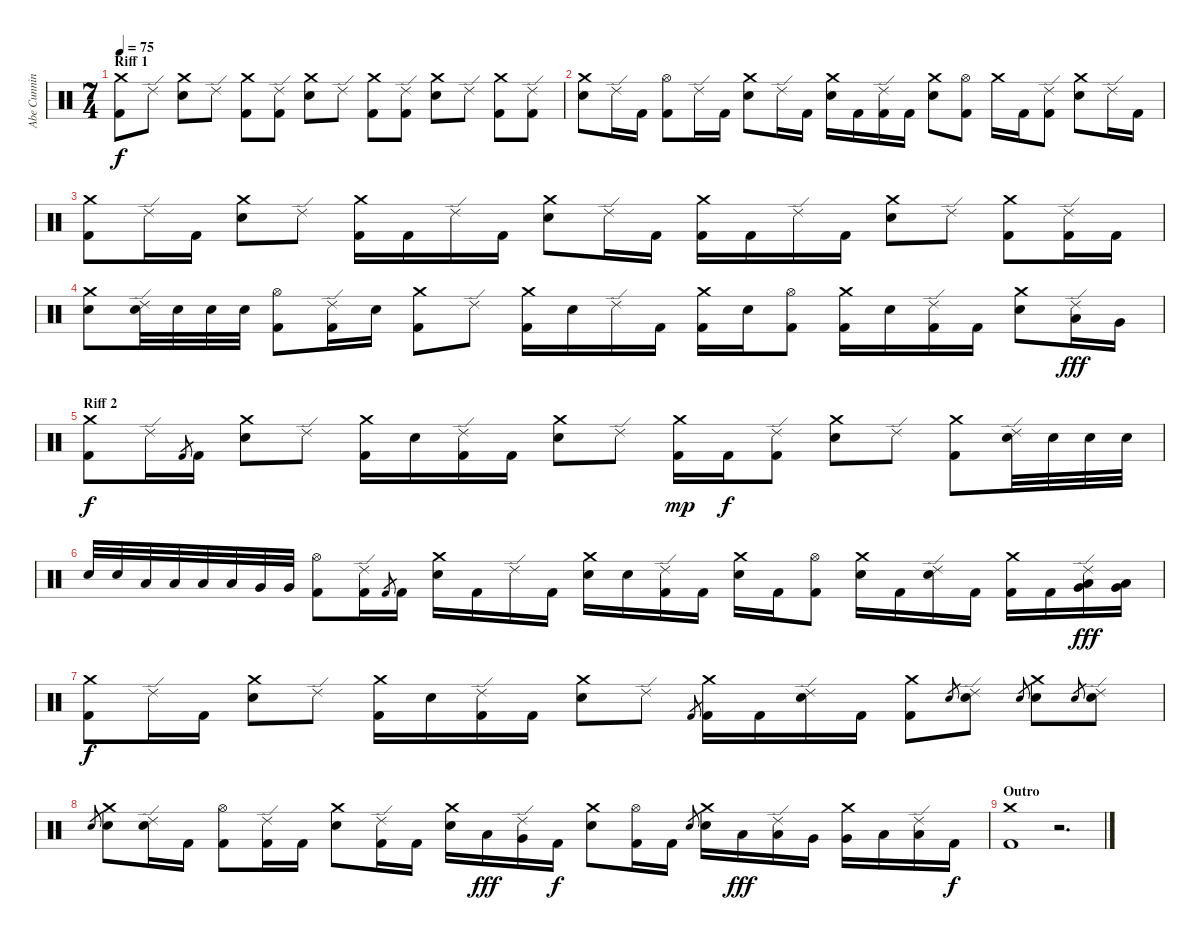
\track ("Abe Cunningham" "Abe Cunnin") {instrument percussion}
\staff {score}
\articulation defaults
\ts (7 4)
\section ("" "Riff 1")
\tempo 75
\clef neutral
\ks c
("Crash medium (hit)" "Kick (hit) 2").8{dy f} "Ride (edge) 2".8 ("Crash medium (hit)" "Electric Snare (hit)").8 "Ride (edge) 2".8 ("Crash medium (hit)" "Kick (hit) 2").8 ("Ride (edge) 2" "Kick (hit) 2").8 ("Crash medium (hit)" "Electric Snare (hit)").8 "Ride (edge) 2".8 ("Crash medium (hit)" "Kick (hit) 2").8 ("Ride (edge) 2" "Kick (hit) 2").8 ("Crash medium (hit)" "Electric Snare (hit)").8 "Ride (edge) 2".8 ("Crash medium (hit)" "Kick (hit) 2").8 ("Ride (edge) 2" "Kick (hit) 2").8 |
("Crash medium (hit)" "Electric Snare (hit)").8 "Ride (edge) 2".16 "Kick (hit) 2".16 ("Hi-Hat (open)" "Kick (hit) 2").8 "Ride (edge) 2".16 "Kick (hit) 2".16 ("Crash medium (hit)" "Electric Snare (hit)").8 "Ride (edge) 2".16 "Kick (hit) 2".16 ("Crash medium (hit)" "Electric Snare (hit)").16 "Kick (hit) 2".16 ("Ride (edge) 2" "Kick (hit) 2").16 "Kick (hit) 2".16 ("Crash medium (hit)" "Electric Snare (hit)").8 ("Hi-Hat (open)" "Kick (hit) 2").8 "Crash medium (hit)".16 "Kick (hit) 2".16 ("Ride (edge) 2" "Kick (hit) 2").8 ("Crash medium (hit)" "Electric Snare (hit)").8 "Ride (edge) 2".16 "Kick (hit) 2".16 |
("Crash medium (hit)" "Kick (hit) 2").8 "Ride (edge) 2".16 "Kick (hit) 2".16 ("Crash medium (hit)" "Electric Snare (hit)").8 "Ride (edge) 2".8 ("Crash medium (hit)" "Kick (hit) 2").16 "Kick (hit) 2".16 "Ride (edge) 2".16 "Kick (hit) 2".16 ("Crash medium (hit)" "Electric Snare (hit)").8 "Ride (edge) 2".16 "Kick (hit) 2".16 ("Crash medium (hit)" "Kick (hit) 2").16 "Kick (hit) 2".16 "Ride (edge) 2".16 "Kick (hit) 2".16 ("Crash medium (hit)" "Electric Snare (hit)").8 "Ride (edge) 2".8 ("Crash medium (hit)" "Kick (hit) 2").8 ("Ride (edge) 2" "Kick (hit) 2").16 "Kick (hit) 2".16 |
("Crash medium (hit)" "Electric Snare (hit)").8 ("Ride (edge) 2" "Electric Snare (hit)").32 "Electric Snare (hit)".32 "Electric Snare (hit)".32 "Electric Snare (hit)".32 ("Hi-Hat (open)" "Kick (hit) 2").8 ("Ride (edge) 2" "Kick (hit) 2").16 "Electric Snare (hit)".16 ("Crash medium (hit)" "Kick (hit) 2").8 "Ride (edge) 2".8 ("Crash medium (hit)" "Kick (hit) 2").16 "Electric Snare (hit)".16 "Ride (edge) 2".16 "Kick (hit) 2".16 ("Crash medium (hit)" "Kick (hit) 2").16 "Electric Snare (hit)".16 ("Hi-Hat (open)" "Kick (hit) 2").8 ("Crash medium (hit)" "Kick (hit) 2").16 "Electric Snare (hit)".16 ("Ride (edge) 2" "Kick (hit) 2").16 "Kick (hit) 2".16 ("Crash medium (hit)" "Electric Snare (hit)").8 ("Ride (edge) 2" "Low Tom (hit)").16{dy fff} "Very Low Tom (hit)".16 |
\section ("" "Riff 2")
("Crash medium (hit)" "Kick (hit) 2").8{dy f} "Ride (edge) 2".16 "Kick (hit) 2".8{gr} "Kick (hit) 2".16 ("Crash medium (hit)" "Electric Snare (hit)").8 "Ride (edge) 2".8 ("Crash medium (hit)" "Kick (hit) 2").16 "Electric Snare (hit)".16 ("Ride (edge) 2" "Kick (hit) 2").16 "Kick (hit) 2".16 ("Crash medium (hit)" "Electric Snare (hit)").8 "Ride (edge) 2".8 ("Crash medium (hit)" "Kick (hit) 2").16{dy mp} "Kick (hit) 2".16{dy f} ("Ride (edge) 2" "Kick (hit) 2").8 ("Crash medium (hit)" "Electric Snare (hit)").8 "Ride (edge) 2".8 ("Crash medium (hit)" "Kick (hit) 2").8 ("Ride (edge) 2" "Electric Snare (hit)").32 "Electric Snare (hit)".32 "Electric Snare (hit)".32 "Electric Snare (hit)".32 |
"Electric Snare (hit)".32 "Electric Snare (hit)".32 "Low Tom (hit)".32 "Low Tom (hit)".32 "Low Tom (hit)".32 "Low Tom (hit)".32 "Very Low Tom (hit)".32 "Very Low Tom (hit)".32 ("Hi-Hat (open)" "Kick (hit) 2").8 ("Ride (edge) 2" "Kick (hit) 2").16 "Kick (hit) 2".8{gr} "Kick (hit) 2".16 ("Crash medium (hit)" "Electric Snare (hit)").16 "Kick (hit) 2".16 "Ride (edge) 2".16 "Kick (hit) 2".16 ("Crash medium (hit)" "Electric Snare (hit)").16 "Electric Snare (hit)".16 ("Ride (edge) 2" "Kick (hit) 2").16 "Kick (hit) 2".16 ("Crash medium (hit)" "Electric Snare (hit)").16 "Kick (hit) 2".16 ("Hi-Hat (open)" "Kick (hit) 2").8 ("Crash medium (hit)" "Electric Snare (hit)").16 "Kick (hit) 2".16 ("Ride (edge) 2" "Electric Snare (hit)").16 "Kick (hit) 2".16 ("Crash medium (hit)" "Kick (hit) 2").16 "Kick (hit) 2".16 ("Ride (edge) 2" "Very Low Tom (hit)" "Low Floor Tom (hit)").16{dy fff} ("Very Low Tom (hit)" "Low Floor Tom (hit)").16 |
("Crash medium (hit)" "Kick (hit) 2").8{dy f} "Ride (edge) 2".16 "Kick (hit) 2".16 ("Crash medium (hit)" "Electric Snare (hit)").8 "Ride (edge) 2".8 ("Crash medium (hit)" "Kick (hit) 2").16 "Electric Snare (hit)".16 ("Ride (edge) 2" "Kick (hit) 2").16 "Kick (hit) 2".16 ("Crash medium (hit)" "Electric Snare (hit)").8 "Ride (edge) 2".8 "Kick (hit) 2".8{gr} ("Crash medium (hit)" "Kick (hit) 2").16 "Kick (hit) 2".16 ("Ride (edge) 2" "Electric Snare (hit)").16 "Kick (hit) 2".16 ("Crash medium (hit)" "Kick (hit) 2").8 "Electric Snare (hit)".8{gr} ("Ride (edge) 2" "Electric Snare (hit)").8 "Electric Snare (hit)".8{gr} ("Crash medium (hit)" "Electric Snare (hit)").8 "Electric Snare (hit)".8{gr} ("Ride (edge) 2" "Electric Snare (hit)").8 |
"Electric Snare (hit)".8{gr} ("Crash medium (hit)" "Electric Snare (hit)").8 ("Ride (edge) 2" "Electric Snare (hit)").16 "Kick (hit) 2".16 ("Hi-Hat (open)" "Kick (hit) 2").8 ("Ride (edge) 2" "Kick (hit) 2").16 "Kick (hit) 2".16 ("Crash medium (hit)" "Electric Snare (hit)").8 ("Ride (edge) 2" "Kick (hit) 2").16 "Kick (hit) 2".16 ("Crash medium (hit)" "Electric Snare (hit)").16 "Low Tom (hit)".16{dy fff} ("Ride (edge) 2" "Very Low Tom (hit)").16 "Kick (hit) 2".16{dy f} ("Crash medium (hit)" "Electric Snare (hit)").8 ("Hi-Hat (open)" "Kick (hit) 2").16 "Kick (hit) 2".16 "Electric Snare (hit)".8{gr} ("Crash medium (hit)" "Electric Snare (hit)").16 "Low Tom (hit)".16{dy fff} ("Ride (edge) 2" "Low Tom (hit)").16 "Very Low Tom (hit)".16 ("Crash medium (hit)" "Very Low Tom (hit)").16 "Low Floor Tom (hit)".16 ("Ride (edge) 2" "Low Floor Tom (hit)").16 "Kick (hit) 2".16{dy f} |
\section ("" "Outro")
("Crash medium (hit)" "Kick (hit) 2").1 r.2{d}
